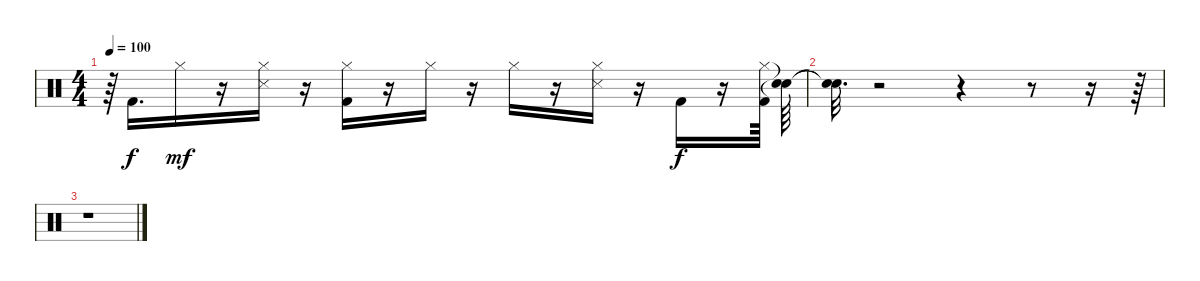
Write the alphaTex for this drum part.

\track "" {instrument percussion}
\staff {score}
\articulation defaults
\ts (4 4)
\tempo 100
\clef neutral
\ks c
r.64{dy f} "Kick (hit) 2".16{d} "Hi-Hat (closed)".16{dy mf} r.16 ("Hi-Hat (closed)" "Snare (side stick) 3").16 r.16 ("Kick (hit) 2" "Hi-Hat (closed)").16 r.16 "Hi-Hat (closed)".16 r.16 "Hi-Hat (closed)".16 r.16 ("Hi-Hat (closed)" "Snare (side stick) 3").16 r.16 "Kick (hit) 2".16{dy f} r.16 ("Hi-Hat (closed)" "Kick (hit) 2").64 ("Snare (hit)"{t} "Snare (hit)"{t}).64 |
("Snare (hit)"{t} "Snare (hit)"{t}).32{d} r.2 r.4 r.8 r.16 r.64 |
r.1
